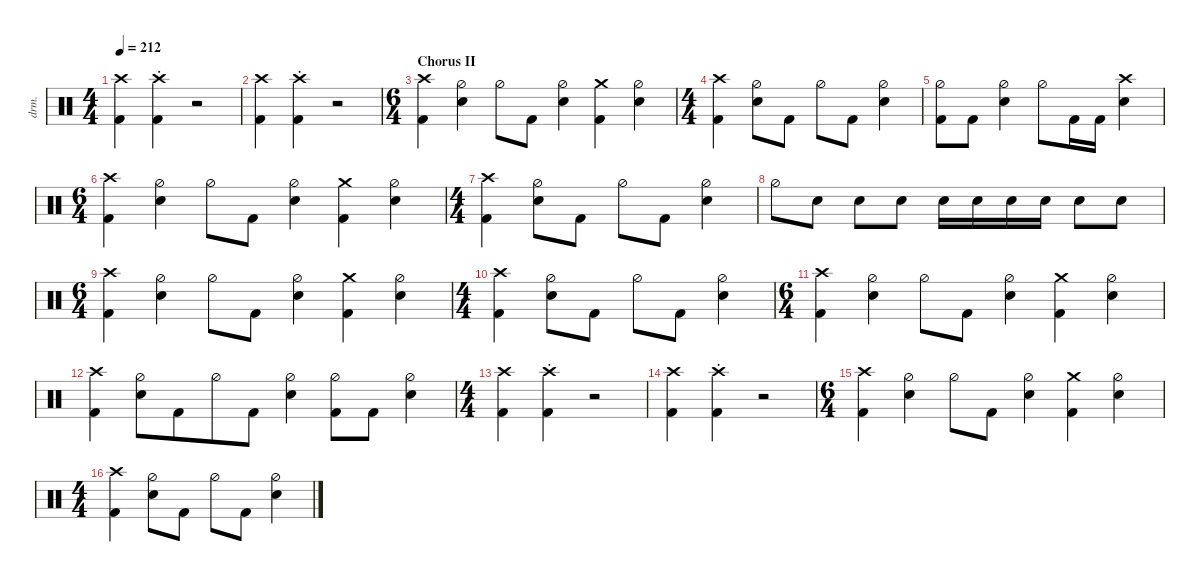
\defaultSystemsLayout 4
\hideDynamics
\bracketExtendMode nobrackets
\track ("Drums" "drm.") {defaultSystemsLayout 4 multiBarRest instrument percussion}
\staff
\articulation defaults
\ts (4 4)
\tempo 212
\clef neutral
\ks c
("Kick (hit) 2" "Crash high (hit)").4{dy ff} ("Kick (hit) 2" "Crash high (hit)"{st}).4 r.2 |
("Kick (hit) 2" "Crash high (hit)").4 ("Kick (hit) 2" "Crash high (hit)"{st}).4 r.2 |
\ts (6 4)
\beaming (8 6 6)
\section ("" "Chorus II")
("Crash high (hit)" "Kick (hit) 2").4{dy f} ("Hi-Hat (half)" "Snare (hit) 2").4 "Hi-Hat (half)".8 "Kick (hit) 2".8 ("Hi-Hat (half)" "Snare (hit) 2").4 ("Kick (hit) 2" "Crash medium (hit)").4 ("Hi-Hat (half)" "Snare (hit) 2").4 |
\ts (4 4)
\beaming (8 2 2 2 2)
("Crash high (hit)" "Kick (hit) 2").4 ("Hi-Hat (half)" "Snare (hit) 2").8 "Kick (hit) 2".8 "Hi-Hat (half)".8 "Kick (hit) 2".8 ("Hi-Hat (half)" "Snare (hit) 2").4 |
("Hi-Hat (half)" "Kick (hit) 2").8 "Kick (hit) 2".8 ("Hi-Hat (half)" "Snare (hit) 2").4 "Hi-Hat (half)".8 "Kick (hit) 2".16 "Kick (hit) 2".16 ("Snare (hit) 2" "Crash high (hit)").4 |
\ts (6 4)
\beaming (8 6 6)
("Crash high (hit)" "Kick (hit) 2").4 ("Hi-Hat (half)" "Snare (hit) 2").4 "Hi-Hat (half)".8 "Kick (hit) 2".8 ("Hi-Hat (half)" "Snare (hit) 2").4 ("Kick (hit) 2" "Crash medium (hit)").4 ("Hi-Hat (half)" "Snare (hit) 2").4 |
\ts (4 4)
\beaming (8 2 2 2 2)
("Crash high (hit)" "Kick (hit) 2").4 ("Hi-Hat (half)" "Snare (hit) 2").8 "Kick (hit) 2".8 "Hi-Hat (half)".8 "Kick (hit) 2".8 ("Hi-Hat (half)" "Snare (hit) 2").4 |
"Hi-Hat (half)".8 "Snare (hit) 2".8 "Snare (hit) 2".8 "Snare (hit) 2".8 "Snare (hit) 2".16 "Snare (hit) 2".16{dy mf} "Snare (hit) 2".16 "Snare (hit) 2".16{dy f} "Snare (hit) 2".8 "Snare (hit) 2".8 |
\ts (6 4)
\beaming (8 6 6)
("Crash high (hit)" "Kick (hit) 2").4 ("Hi-Hat (half)" "Snare (hit) 2").4 "Hi-Hat (half)".8 "Kick (hit) 2".8 ("Hi-Hat (half)" "Snare (hit) 2").4 ("Kick (hit) 2" "Crash medium (hit)").4 ("Hi-Hat (half)" "Snare (hit) 2").4 |
\ts (4 4)
\beaming (8 2 2 2 2)
("Crash high (hit)" "Kick (hit) 2").4 ("Hi-Hat (half)" "Snare (hit) 2").8 "Kick (hit) 2".8 "Hi-Hat (half)".8 "Kick (hit) 2".8 ("Hi-Hat (half)" "Snare (hit) 2").4 |
\ts (6 4)
\beaming (8 6 6)
("Crash high (hit)" "Kick (hit) 2").4 ("Hi-Hat (half)" "Snare (hit) 2").4 "Hi-Hat (half)".8 "Kick (hit) 2".8 ("Hi-Hat (half)" "Snare (hit) 2").4 ("Kick (hit) 2" "Crash medium (hit)").4 ("Hi-Hat (half)" "Snare (hit) 2").4 |
("Crash high (hit)" "Kick (hit) 2").4 ("Hi-Hat (half)" "Snare (hit) 2").8 "Kick (hit) 2".8 "Hi-Hat (half)".8 "Kick (hit) 2".8 ("Hi-Hat (half)" "Snare (hit) 2").4 ("Hi-Hat (half)" "Kick (hit) 2").8 "Kick (hit) 2".8 ("Hi-Hat (half)" "Snare (hit) 2").4 |
\ts (4 4)
\beaming (8 2 2 2 2)
("Kick (hit) 2" "Crash high (hit)").4{dy ff} ("Kick (hit) 2" "Crash high (hit)"{st}).4 r.2 |
("Kick (hit) 2" "Crash high (hit)").4 ("Kick (hit) 2" "Crash high (hit)"{st}).4 r.2 |
\ts (6 4)
\beaming (8 6 6)
("Crash high (hit)" "Kick (hit) 2").4{dy f} ("Hi-Hat (half)" "Snare (hit) 2").4 "Hi-Hat (half)".8 "Kick (hit) 2".8 ("Hi-Hat (half)" "Snare (hit) 2").4 ("Kick (hit) 2" "Crash medium (hit)").4 ("Hi-Hat (half)" "Snare (hit) 2").4 |
\ts (4 4)
\beaming (8 2 2 2 2)
("Crash high (hit)" "Kick (hit) 2").4 ("Hi-Hat (half)" "Snare (hit) 2").8 "Kick (hit) 2".8 "Hi-Hat (half)".8 "Kick (hit) 2".8 ("Hi-Hat (half)" "Snare (hit) 2").4
